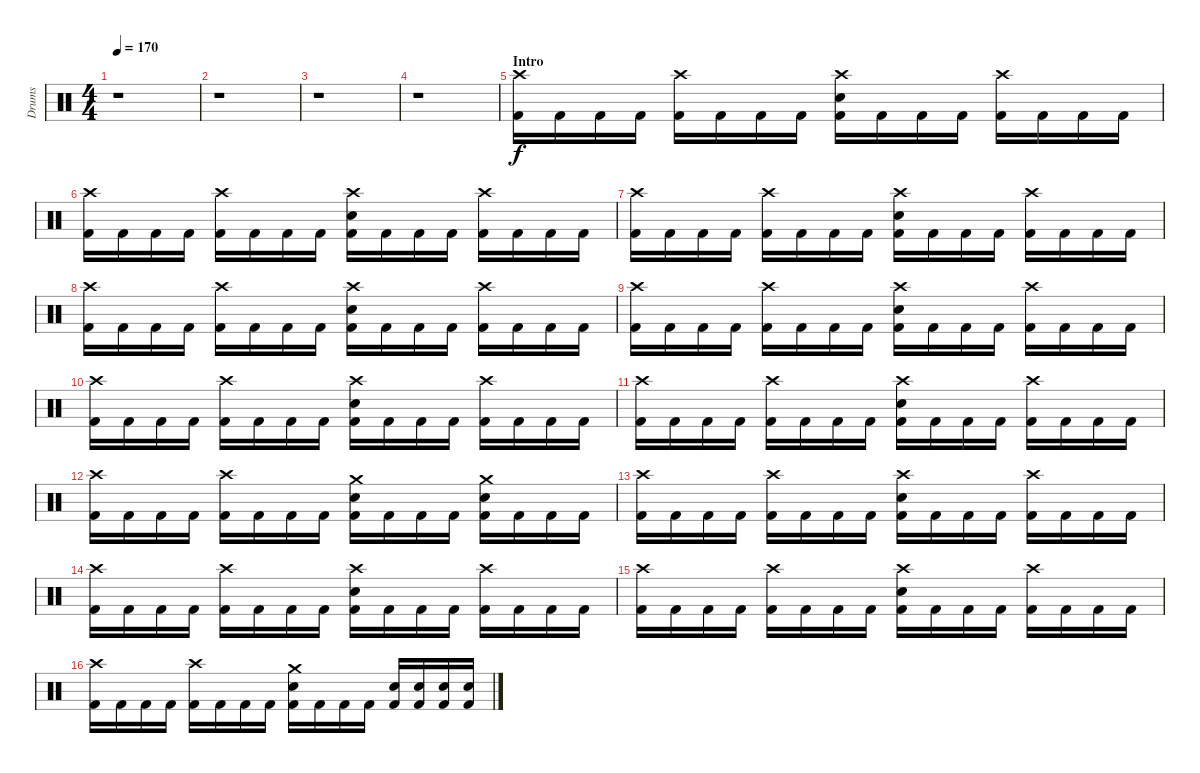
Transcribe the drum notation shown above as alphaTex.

\track ("Drums" "Drums") {instrument percussion}
\staff {score}
\articulation defaults
\ts (4 4)
\tempo 170
\clef neutral
\ks c
r.1{dy f} |
r.1 |
r.1 |
r.1 |
\section ("" "Intro")
("Crash high (hit)" "Kick (hit) 2").16 "Kick (hit) 2".16 "Kick (hit) 2".16 "Kick (hit) 2".16 ("Crash high (hit)" "Kick (hit) 2").16 "Kick (hit) 2".16 "Kick (hit) 2".16 "Kick (hit) 2".16 ("Crash high (hit)" "Electric Snare (hit)" "Kick (hit) 2").16 "Kick (hit) 2".16 "Kick (hit) 2".16 "Kick (hit) 2".16 ("Crash high (hit)" "Kick (hit) 2").16 "Kick (hit) 2".16 "Kick (hit) 2".16 "Kick (hit) 2".16 |
("Crash high (hit)" "Kick (hit) 2").16 "Kick (hit) 2".16 "Kick (hit) 2".16 "Kick (hit) 2".16 ("Crash high (hit)" "Kick (hit) 2").16 "Kick (hit) 2".16 "Kick (hit) 2".16 "Kick (hit) 2".16 ("Crash high (hit)" "Electric Snare (hit)" "Kick (hit) 2").16 "Kick (hit) 2".16 "Kick (hit) 2".16 "Kick (hit) 2".16 ("Crash high (hit)" "Kick (hit) 2").16 "Kick (hit) 2".16 "Kick (hit) 2".16 "Kick (hit) 2".16 |
("Crash high (hit)" "Kick (hit) 2").16 "Kick (hit) 2".16 "Kick (hit) 2".16 "Kick (hit) 2".16 ("Crash high (hit)" "Kick (hit) 2").16 "Kick (hit) 2".16 "Kick (hit) 2".16 "Kick (hit) 2".16 ("Crash high (hit)" "Electric Snare (hit)" "Kick (hit) 2").16 "Kick (hit) 2".16 "Kick (hit) 2".16 "Kick (hit) 2".16 ("Crash high (hit)" "Kick (hit) 2").16 "Kick (hit) 2".16 "Kick (hit) 2".16 "Kick (hit) 2".16 |
("Crash high (hit)" "Kick (hit) 2").16 "Kick (hit) 2".16 "Kick (hit) 2".16 "Kick (hit) 2".16 ("Crash high (hit)" "Kick (hit) 2").16 "Kick (hit) 2".16 "Kick (hit) 2".16 "Kick (hit) 2".16 ("Crash high (hit)" "Electric Snare (hit)" "Kick (hit) 2").16 "Kick (hit) 2".16 "Kick (hit) 2".16 "Kick (hit) 2".16 ("Crash high (hit)" "Kick (hit) 2").16 "Kick (hit) 2".16 "Kick (hit) 2".16 "Kick (hit) 2".16 |
("Crash high (hit)" "Kick (hit) 2").16 "Kick (hit) 2".16 "Kick (hit) 2".16 "Kick (hit) 2".16 ("Crash high (hit)" "Kick (hit) 2").16 "Kick (hit) 2".16 "Kick (hit) 2".16 "Kick (hit) 2".16 ("Crash high (hit)" "Electric Snare (hit)" "Kick (hit) 2").16 "Kick (hit) 2".16 "Kick (hit) 2".16 "Kick (hit) 2".16 ("Crash high (hit)" "Kick (hit) 2").16 "Kick (hit) 2".16 "Kick (hit) 2".16 "Kick (hit) 2".16 |
("Crash high (hit)" "Kick (hit) 2").16 "Kick (hit) 2".16 "Kick (hit) 2".16 "Kick (hit) 2".16 ("Crash high (hit)" "Kick (hit) 2").16 "Kick (hit) 2".16 "Kick (hit) 2".16 "Kick (hit) 2".16 ("Crash high (hit)" "Electric Snare (hit)" "Kick (hit) 2").16 "Kick (hit) 2".16 "Kick (hit) 2".16 "Kick (hit) 2".16 ("Crash high (hit)" "Kick (hit) 2").16 "Kick (hit) 2".16 "Kick (hit) 2".16 "Kick (hit) 2".16 |
("Crash high (hit)" "Kick (hit) 2").16 "Kick (hit) 2".16 "Kick (hit) 2".16 "Kick (hit) 2".16 ("Crash high (hit)" "Kick (hit) 2").16 "Kick (hit) 2".16 "Kick (hit) 2".16 "Kick (hit) 2".16 ("Crash high (hit)" "Electric Snare (hit)" "Kick (hit) 2").16 "Kick (hit) 2".16 "Kick (hit) 2".16 "Kick (hit) 2".16 ("Crash high (hit)" "Kick (hit) 2").16 "Kick (hit) 2".16 "Kick (hit) 2".16 "Kick (hit) 2".16 |
("Crash high (hit)" "Kick (hit) 2").16 "Kick (hit) 2".16 "Kick (hit) 2".16 "Kick (hit) 2".16 ("Crash high (hit)" "Kick (hit) 2").16 "Kick (hit) 2".16 "Kick (hit) 2".16 "Kick (hit) 2".16 ("Crash medium (hit)" "Electric Snare (hit)" "Kick (hit) 2").16 "Kick (hit) 2".16 "Kick (hit) 2".16 "Kick (hit) 2".16 ("Crash medium (hit)" "Electric Snare (hit)" "Kick (hit) 2").16 "Kick (hit) 2".16 "Kick (hit) 2".16 "Kick (hit) 2".16 |
("Crash high (hit)" "Kick (hit) 2").16 "Kick (hit) 2".16 "Kick (hit) 2".16 "Kick (hit) 2".16 ("Crash high (hit)" "Kick (hit) 2").16 "Kick (hit) 2".16 "Kick (hit) 2".16 "Kick (hit) 2".16 ("Crash high (hit)" "Electric Snare (hit)" "Kick (hit) 2").16 "Kick (hit) 2".16 "Kick (hit) 2".16 "Kick (hit) 2".16 ("Crash high (hit)" "Kick (hit) 2").16 "Kick (hit) 2".16 "Kick (hit) 2".16 "Kick (hit) 2".16 |
("Crash high (hit)" "Kick (hit) 2").16 "Kick (hit) 2".16 "Kick (hit) 2".16 "Kick (hit) 2".16 ("Crash high (hit)" "Kick (hit) 2").16 "Kick (hit) 2".16 "Kick (hit) 2".16 "Kick (hit) 2".16 ("Crash high (hit)" "Electric Snare (hit)" "Kick (hit) 2").16 "Kick (hit) 2".16 "Kick (hit) 2".16 "Kick (hit) 2".16 ("Crash high (hit)" "Kick (hit) 2").16 "Kick (hit) 2".16 "Kick (hit) 2".16 "Kick (hit) 2".16 |
("Crash high (hit)" "Kick (hit) 2").16 "Kick (hit) 2".16 "Kick (hit) 2".16 "Kick (hit) 2".16 ("Crash high (hit)" "Kick (hit) 2").16 "Kick (hit) 2".16 "Kick (hit) 2".16 "Kick (hit) 2".16 ("Crash high (hit)" "Electric Snare (hit)" "Kick (hit) 2").16 "Kick (hit) 2".16 "Kick (hit) 2".16 "Kick (hit) 2".16 ("Crash high (hit)" "Kick (hit) 2").16 "Kick (hit) 2".16 "Kick (hit) 2".16 "Kick (hit) 2".16 |
("Crash high (hit)" "Kick (hit) 2").16 "Kick (hit) 2".16 "Kick (hit) 2".16 "Kick (hit) 2".16 ("Crash high (hit)" "Kick (hit) 2").16 "Kick (hit) 2".16 "Kick (hit) 2".16 "Kick (hit) 2".16 ("Crash medium (hit)" "Electric Snare (hit)" "Kick (hit) 2").16 "Kick (hit) 2".16 "Kick (hit) 2".16 "Kick (hit) 2".16 ("Electric Snare (hit)" "Kick (hit) 2").16 ("Electric Snare (hit)" "Kick (hit) 2").16 ("Electric Snare (hit)" "Kick (hit) 2").16 ("Electric Snare (hit)" "Kick (hit) 2").16
